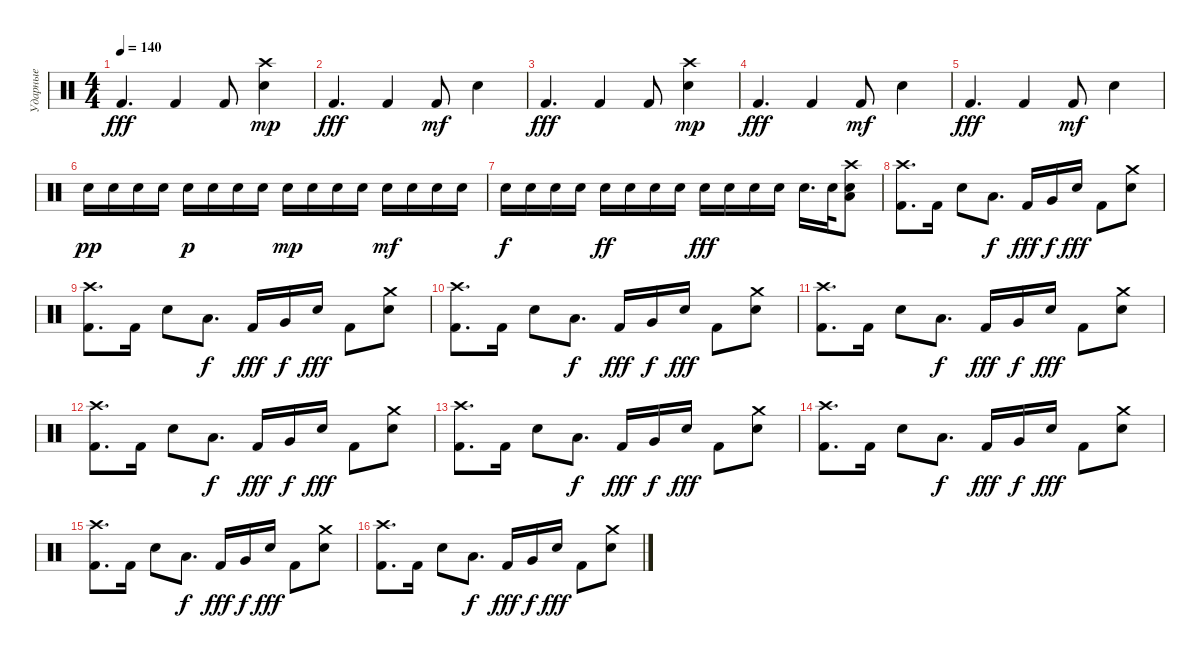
\track ("Ударные" "Ударные") {instrument percussion}
\staff {score}
\articulation defaults
\ts (4 4)
\tempo 140
\clef neutral
\ks c "Kick (hit) 2".4{d dy fff} "Kick (hit) 2".4 "Kick (hit) 2".8
("Electric Snare (hit)" "Crash high (hit)").4{dy mp} |
"Kick (hit) 2".4{d dy fff} "Kick (hit) 2".4 "Kick (hit) 2".8{dy mf} "Electric Snare (hit)".4 |
"Kick (hit) 2".4{d dy fff} "Kick (hit) 2".4 "Kick (hit) 2".8 ("Electric Snare (hit)" "Crash high (hit)").4{dy mp} |
"Kick (hit) 2".4{d dy fff} "Kick (hit) 2".4 "Kick (hit) 2".8{dy mf} "Electric Snare (hit)".4 |
"Kick (hit) 2".4{d dy fff} "Kick (hit) 2".4 "Kick (hit) 2".8{dy mf} "Electric Snare (hit)".4 |
"Electric Snare (hit)".16{dy pp} "Electric Snare (hit)".16 "Electric Snare (hit)".16 "Electric Snare (hit)".16 "Electric Snare (hit)".16{dy p} "Electric Snare (hit)".16 "Electric Snare (hit)".16 "Electric Snare (hit)".16 "Electric Snare (hit)".16{dy mp} "Electric Snare (hit)".16 "Electric Snare (hit)".16 "Electric Snare (hit)".16 "Electric Snare (hit)".16{dy mf} "Electric Snare (hit)".16 "Electric Snare (hit)".16 "Electric Snare (hit)".16 |
"Electric Snare (hit)".16{dy f} "Electric Snare (hit)".16 "Electric Snare (hit)".16 "Electric Snare (hit)".16 "Electric Snare (hit)".16{dy ff} "Electric Snare (hit)".16 "Electric Snare (hit)".16 "Electric Snare (hit)".16 "Electric Snare (hit)".16{dy fff} "Electric Snare (hit)".16 "Electric Snare (hit)".16 "Electric Snare (hit)".16 "Electric Snare (hit)".16{d} "Electric Snare (hit)".32 ("Low Floor Tom (hit)" "Electric Snare (hit)" "Crash high (hit)").8 |
("Kick (hit) 2" "Crash high (hit)").8{d} "Kick (hit) 2".16 "Electric Snare (hit)".8 "Low Floor Tom (hit)".8{d dy f} "Kick (hit) 2".16{dy fff} "Very Low Tom (hit)".16{dy f} "Electric Snare (hit)".16{dy fff} "Kick (hit) 2".8 ("Electric Snare (hit)" "Crash medium (hit)").8 |
("Kick (hit) 2" "Crash high (hit)").8{d} "Kick (hit) 2".16 "Electric Snare (hit)".8 "Low Floor Tom (hit)".8{d dy f} "Kick (hit) 2".16{dy fff} "Very Low Tom (hit)".16{dy f} "Electric Snare (hit)".16{dy fff} "Kick (hit) 2".8 ("Electric Snare (hit)" "Crash medium (hit)").8 |
("Kick (hit) 2" "Crash high (hit)").8{d} "Kick (hit) 2".16 "Electric Snare (hit)".8 "Low Floor Tom (hit)".8{d dy f} "Kick (hit) 2".16{dy fff} "Very Low Tom (hit)".16{dy f} "Electric Snare (hit)".16{dy fff} "Kick (hit) 2".8 ("Electric Snare (hit)" "Crash medium (hit)").8 |
("Kick (hit) 2" "Crash high (hit)").8{d} "Kick (hit) 2".16 "Electric Snare (hit)".8 "Low Floor Tom (hit)".8{d dy f} "Kick (hit) 2".16{dy fff} "Very Low Tom (hit)".16{dy f} "Electric Snare (hit)".16{dy fff} "Kick (hit) 2".8 ("Electric Snare (hit)" "Crash medium (hit)").8 |
("Kick (hit) 2" "Crash high (hit)").8{d} "Kick (hit) 2".16 "Electric Snare (hit)".8 "Low Floor Tom (hit)".8{d dy f} "Kick (hit) 2".16{dy fff} "Very Low Tom (hit)".16{dy f} "Electric Snare (hit)".16{dy fff} "Kick (hit) 2".8 ("Electric Snare (hit)" "Crash medium (hit)").8 |
("Kick (hit) 2" "Crash high (hit)").8{d} "Kick (hit) 2".16 "Electric Snare (hit)".8 "Low Floor Tom (hit)".8{d dy f} "Kick (hit) 2".16{dy fff} "Very Low Tom (hit)".16{dy f} "Electric Snare (hit)".16{dy fff} "Kick (hit) 2".8 ("Electric Snare (hit)" "Crash medium (hit)").8 |
("Kick (hit) 2" "Crash high (hit)").8{d} "Kick (hit) 2".16 "Electric Snare (hit)".8 "Low Floor Tom (hit)".8{d dy f} "Kick (hit) 2".16{dy fff} "Very Low Tom (hit)".16{dy f} "Electric Snare (hit)".16{dy fff} "Kick (hit) 2".8 ("Electric Snare (hit)" "Crash medium (hit)").8 |
("Kick (hit) 2" "Crash high (hit)").8{d} "Kick (hit) 2".16 "Electric Snare (hit)".8 "Low Floor Tom (hit)".8{d dy f} "Kick (hit) 2".16{dy fff} "Very Low Tom (hit)".16{dy f} "Electric Snare (hit)".16{dy fff} "Kick (hit) 2".8 ("Electric Snare (hit)" "Crash medium (hit)").8 |
("Kick (hit) 2" "Crash high (hit)").8{d} "Kick (hit) 2".16 "Electric Snare (hit)".8 "Low Floor Tom (hit)".8{d dy f} "Kick (hit) 2".16{dy fff} "Very Low Tom (hit)".16{dy f} "Electric Snare (hit)".16{dy fff} "Kick (hit) 2".8 ("Electric Snare (hit)" "Crash medium (hit)").8
